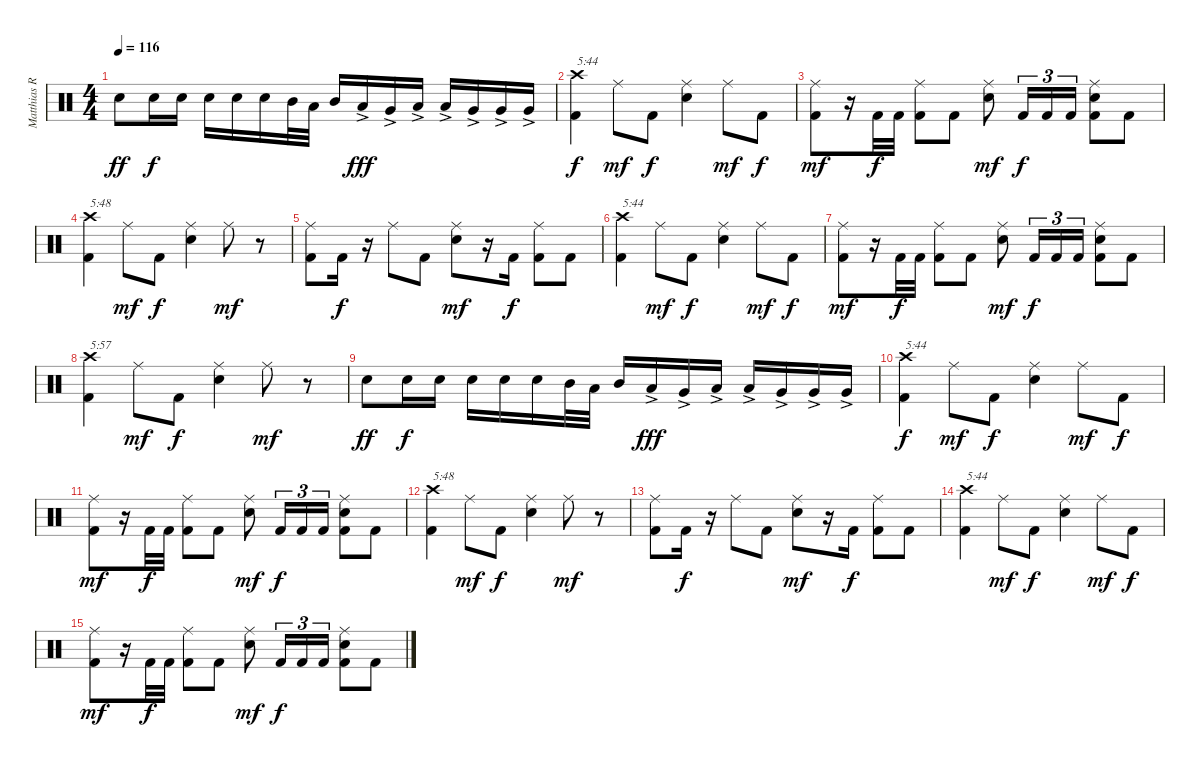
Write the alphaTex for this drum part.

\track ("Matthias R." "Matthias R") {instrument percussion}
\staff {score}
\articulation defaults
\ts (4 4)
\tempo 116
\clef neutral
\ks c "Electric Snare (hit)".8{dy ff} "Electric Snare (hit)".16{dy f} "Electric Snare (hit)".16 "Electric Snare (hit)".16 "Electric Snare (hit)".16 "Electric Snare (hit)".16 "Mid Tom (hit)".32 "Low Tom (hit)".32 "Mid Tom (hit)".16 "Low Tom (hit)"{ac}.16{dy fff} "Very Low Tom (hit)"{ac}.16 "Low Tom (hit)"{ac}.16 "Low Tom (hit)"{ac}.16 "Very Low Tom (hit)"{ac}.16 "Very Low Tom (hit)"{ac}.16 "Very Low Tom (hit)"{ac}.16
|
("Kick (hit) 2" "Crash high (hit)").4{txt "5:44" dy f} "Ride (middle)".8{dy mf} "Kick (hit) 2".8{dy f} ("Electric Snare (hit)" "Ride (middle)").4 "Ride (middle)".8{dy mf} "Kick (hit) 2".8{dy f} |
("Kick (hit) 2" "Ride (middle)").8{dy mf} r.16 "Kick (hit) 2".32{dy f} "Kick (hit) 2".32 ("Kick (hit) 2" "Ride (middle)").8 "Kick (hit) 2".8 ("Electric Snare (hit)" "Ride (middle)").8{dy mf} "Kick (hit) 2".16{tu (3 2) dy f} "Kick (hit) 2".16{tu (3 2)} "Kick (hit) 2".16{tu (3 2)} ("Kick (hit) 2" "Electric Snare (hit)" "Ride (middle)").8 "Kick (hit) 2".8 |
("Kick (hit) 2" "Crash high (hit)").4{txt "5:48"} "Ride (middle)".8{dy mf} "Kick (hit) 2".8{dy f} ("Electric Snare (hit)" "Ride (middle)").4 "Ride (middle)".8{dy mf} r.8 |
("Kick (hit) 2" "Ride (middle)").8 "Kick (hit) 2".16{dy f} r.16 "Ride (middle)".8 "Kick (hit) 2".8 ("Electric Snare (hit)" "Ride (middle)").8{dy mf} r.16 "Kick (hit) 2".16{dy f} ("Kick (hit) 2" "Ride (middle)").8 "Kick (hit) 2".8 |
("Kick (hit) 2" "Crash high (hit)").4{txt "5:44"} "Ride (middle)".8{dy mf} "Kick (hit) 2".8{dy f} ("Electric Snare (hit)" "Ride (middle)").4 "Ride (middle)".8{dy mf} "Kick (hit) 2".8{dy f} |
("Kick (hit) 2" "Ride (middle)").8{dy mf} r.16 "Kick (hit) 2".32{dy f} "Kick (hit) 2".32 ("Kick (hit) 2" "Ride (middle)").8 "Kick (hit) 2".8 ("Electric Snare (hit)" "Ride (middle)").8{dy mf} "Kick (hit) 2".16{tu (3 2) dy f} "Kick (hit) 2".16{tu (3 2)} "Kick (hit) 2".16{tu (3 2)} ("Kick (hit) 2" "Electric Snare (hit)" "Ride (middle)").8 "Kick (hit) 2".8 |
("Kick (hit) 2" "Crash high (hit)").4{txt "5:57"} "Ride (middle)".8{dy mf} "Kick (hit) 2".8{dy f} ("Electric Snare (hit)" "Ride (middle)").4 "Ride (middle)".8{dy mf} r.8 |
"Electric Snare (hit)".8{dy ff} "Electric Snare (hit)".16{dy f} "Electric Snare (hit)".16 "Electric Snare (hit)".16 "Electric Snare (hit)".16 "Electric Snare (hit)".16 "Mid Tom (hit)".32 "Low Tom (hit)".32 "Mid Tom (hit)".16 "Low Tom (hit)"{ac}.16{dy fff} "Very Low Tom (hit)"{ac}.16 "Low Tom (hit)"{ac}.16 "Low Tom (hit)"{ac}.16 "Very Low Tom (hit)"{ac}.16 "Very Low Tom (hit)"{ac}.16 "Very Low Tom (hit)"{ac}.16 |
("Kick (hit) 2" "Crash high (hit)").4{txt "5:44" dy f} "Ride (middle)".8{dy mf} "Kick (hit) 2".8{dy f} ("Electric Snare (hit)" "Ride (middle)").4 "Ride (middle)".8{dy mf} "Kick (hit) 2".8{dy f} |
("Kick (hit) 2" "Ride (middle)").8{dy mf} r.16 "Kick (hit) 2".32{dy f} "Kick (hit) 2".32 ("Kick (hit) 2" "Ride (middle)").8 "Kick (hit) 2".8 ("Electric Snare (hit)" "Ride (middle)").8{dy mf} "Kick (hit) 2".16{tu (3 2) dy f} "Kick (hit) 2".16{tu (3 2)} "Kick (hit) 2".16{tu (3 2)} ("Kick (hit) 2" "Electric Snare (hit)" "Ride (middle)").8 "Kick (hit) 2".8 |
("Kick (hit) 2" "Crash high (hit)").4{txt "5:48"} "Ride (middle)".8{dy mf} "Kick (hit) 2".8{dy f} ("Electric Snare (hit)" "Ride (middle)").4 "Ride (middle)".8{dy mf} r.8 |
("Kick (hit) 2" "Ride (middle)").8 "Kick (hit) 2".16{dy f} r.16 "Ride (middle)".8 "Kick (hit) 2".8 ("Electric Snare (hit)" "Ride (middle)").8{dy mf} r.16 "Kick (hit) 2".16{dy f} ("Kick (hit) 2" "Ride (middle)").8 "Kick (hit) 2".8 |
("Kick (hit) 2" "Crash high (hit)").4{txt "5:44"} "Ride (middle)".8{dy mf} "Kick (hit) 2".8{dy f} ("Electric Snare (hit)" "Ride (middle)").4 "Ride (middle)".8{dy mf} "Kick (hit) 2".8{dy f} |
("Kick (hit) 2" "Ride (middle)").8{dy mf} r.16 "Kick (hit) 2".32{dy f} "Kick (hit) 2".32 ("Kick (hit) 2" "Ride (middle)").8 "Kick (hit) 2".8 ("Electric Snare (hit)" "Ride (middle)").8{dy mf} "Kick (hit) 2".16{tu (3 2) dy f} "Kick (hit) 2".16{tu (3 2)} "Kick (hit) 2".16{tu (3 2)} ("Kick (hit) 2" "Electric Snare (hit)" "Ride (middle)").8 "Kick (hit) 2".8
